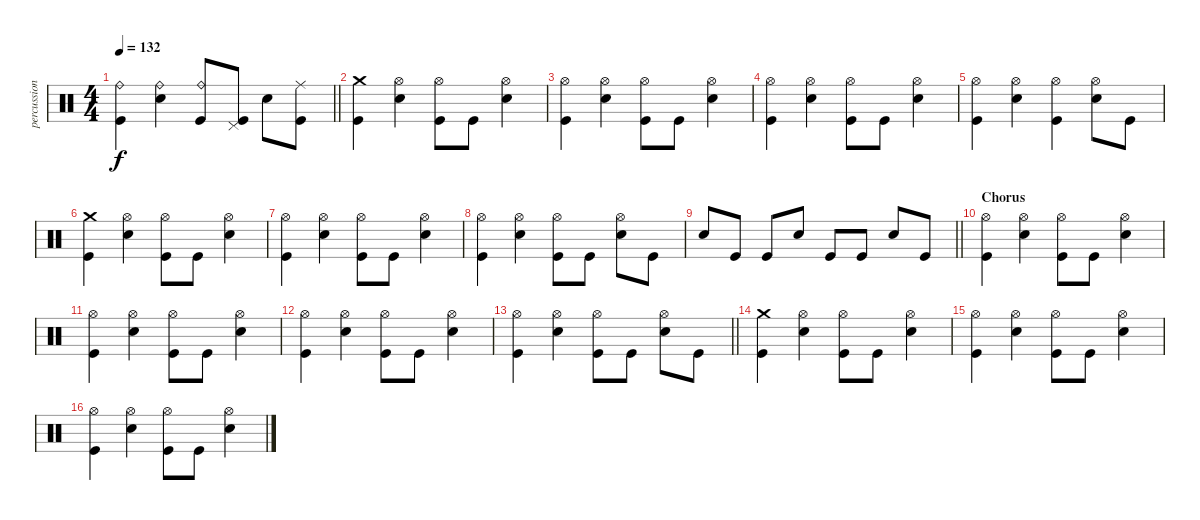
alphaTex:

\track ("percussion" "percussion") {instrument percussion}
\staff {score}
\articulation defaults
\ts (4 4)
\tempo 132
\clef neutral
\barLineRight lightlight
\ks c
("Ride (bell)" "Kick (hit)").4{dy f} ("Ride (bell)" "Snare (hit) 2").4 ("Ride (bell)" "Kick (hit)").8 ("Pedal Hi-Hat (hit)" "Kick (hit)").8 "Snare (hit) 2".8 ("Ride (middle)" "Kick (hit)").8 |
("Crash medium (hit)" "Kick (hit)").4 ("Snare (hit) 2" "Hi-Hat (open)").4 ("Hi-Hat (open)" "Kick (hit)").8 "Kick (hit)".8 ("Snare (hit) 2" "Hi-Hat (open)").4 |
("Hi-Hat (open)" "Kick (hit)").4 ("Snare (hit) 2" "Hi-Hat (open)").4 ("Hi-Hat (open)" "Kick (hit)").8 "Kick (hit)".8 ("Snare (hit) 2" "Hi-Hat (open)").4 |
("Hi-Hat (open)" "Kick (hit)").4 ("Snare (hit) 2" "Hi-Hat (open)").4 ("Hi-Hat (open)" "Kick (hit)").8 "Kick (hit)".8 ("Snare (hit) 2" "Hi-Hat (open)").4 |
("Hi-Hat (open)" "Kick (hit)").4 ("Snare (hit) 2" "Hi-Hat (open)").4 ("Hi-Hat (open)" "Kick (hit)").4 ("Snare (hit) 2" "Hi-Hat (open)").8 "Kick (hit)".8 |
("Crash medium (hit)" "Kick (hit)").4 ("Snare (hit) 2" "Hi-Hat (open)").4 ("Hi-Hat (open)" "Kick (hit)").8 "Kick (hit)".8 ("Snare (hit) 2" "Hi-Hat (open)").4 |
("Hi-Hat (open)" "Kick (hit)").4 ("Snare (hit) 2" "Hi-Hat (open)").4 ("Hi-Hat (open)" "Kick (hit)").8 "Kick (hit)".8 ("Snare (hit) 2" "Hi-Hat (open)").4 |
("Hi-Hat (open)" "Kick (hit)").4 ("Snare (hit) 2" "Hi-Hat (open)").4 ("Hi-Hat (open)" "Kick (hit)").8 "Kick (hit)".8 ("Snare (hit) 2" "Hi-Hat (open)").8 "Kick (hit)".8 |
\barLineRight lightlight "Snare (hit) 2".8 "Kick (hit)".8 "Kick (hit)".8 "Snare (hit) 2".8 "Kick (hit)".8 "Kick (hit)".8 "Snare (hit) 2".8 "Kick (hit)".8
|
\section ("" "Chorus")
("Hi-Hat (open)" "Kick (hit)").4 ("Snare (hit) 2" "Hi-Hat (open)").4 ("Hi-Hat (open)" "Kick (hit)").8 "Kick (hit)".8 ("Snare (hit) 2" "Hi-Hat (open)").4 |
("Hi-Hat (open)" "Kick (hit)").4 ("Snare (hit) 2" "Hi-Hat (open)").4 ("Hi-Hat (open)" "Kick (hit)").8 "Kick (hit)".8 ("Snare (hit) 2" "Hi-Hat (open)").4 |
("Hi-Hat (open)" "Kick (hit)").4 ("Snare (hit) 2" "Hi-Hat (open)").4 ("Hi-Hat (open)" "Kick (hit)").8 "Kick (hit)".8 ("Snare (hit) 2" "Hi-Hat (open)").4 |
\barLineRight lightlight
("Hi-Hat (open)" "Kick (hit)").4 ("Snare (hit) 2" "Hi-Hat (open)").4 ("Hi-Hat (open)" "Kick (hit)").8 "Kick (hit)".8 ("Snare (hit) 2" "Hi-Hat (open)").8 "Kick (hit)".8 |
("Crash medium (hit)" "Kick (hit)").4 ("Snare (hit) 2" "Hi-Hat (open)").4 ("Hi-Hat (open)" "Kick (hit)").8 "Kick (hit)".8 ("Snare (hit) 2" "Hi-Hat (open)").4 |
("Hi-Hat (open)" "Kick (hit)").4 ("Snare (hit) 2" "Hi-Hat (open)").4 ("Hi-Hat (open)" "Kick (hit)").8 "Kick (hit)".8 ("Snare (hit) 2" "Hi-Hat (open)").4 |
("Hi-Hat (open)" "Kick (hit)").4 ("Snare (hit) 2" "Hi-Hat (open)").4 ("Hi-Hat (open)" "Kick (hit)").8 "Kick (hit)".8 ("Snare (hit) 2" "Hi-Hat (open)").4
